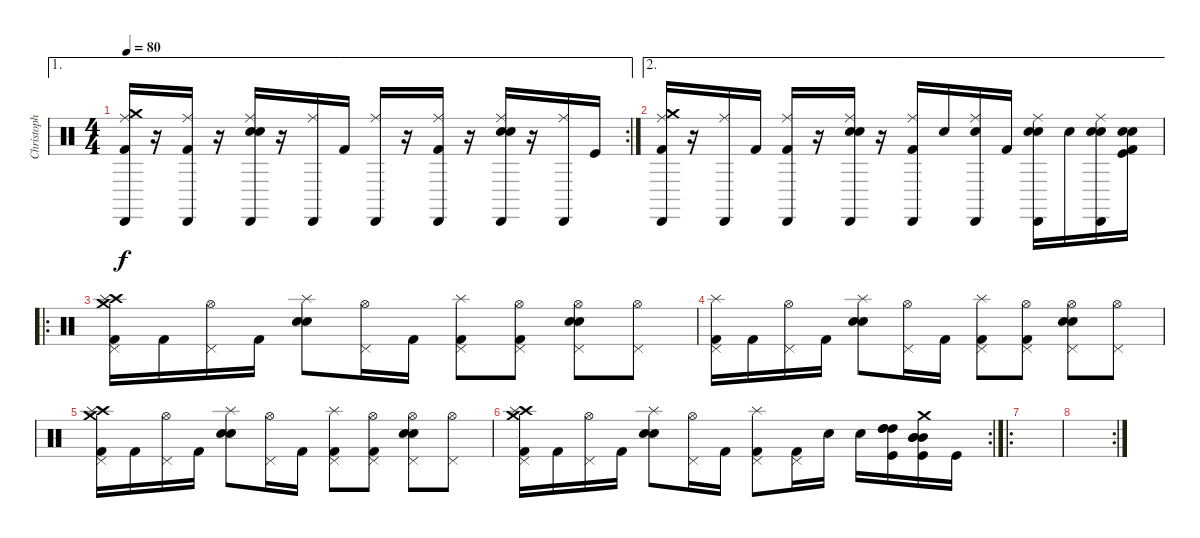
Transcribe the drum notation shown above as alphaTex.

\track ("Christoph" "Christoph") {instrument percussion}
\staff {score}
\articulation defaults
\ae 1
\rc 2
\ts (4 4)
\tempo 80
\clef neutral
\ks c
("Kick (hit) 2" "Crash medium (hit)" "Ride (middle)" "Cabasa (hit)").16{dy f} r.16 ("Kick (hit) 2" "Ride (middle)" "Cabasa (hit)").16 r.16 ("Snare (hit) 2" "Electric Snare (hit)" "Ride (middle)" "Cabasa (hit)").16 r.16 ("Ride (middle)" "Cabasa (hit)").16 "Kick (hit) 2".16 ("Ride (middle)" "Cabasa (hit)").16 r.16 ("Kick (hit) 2" "Ride (middle)" "Cabasa (hit)").16 r.16 ("Snare (hit) 2" "Electric Snare (hit)" "Ride (middle)" "Cabasa (hit)").16 r.16 ("Ride (middle)" "Cabasa (hit)").16 "Kick (hit)".16 |
\ae 2
("Kick (hit) 2" "Crash medium (hit)" "Ride (middle)" "Cabasa (hit)").16 r.16 ("Ride (middle)" "Cabasa (hit)").16 "Kick (hit) 2".16 ("Kick (hit) 2" "Ride (middle)" "Cabasa (hit)").16 r.16 ("Snare (hit) 2" "Electric Snare (hit)" "Ride (middle)" "Cabasa (hit)").16 r.16 ("Kick (hit) 2" "Ride (middle)" "Cabasa (hit)").16 "Electric Snare (hit)".16 ("Electric Snare (hit)" "Ride (middle)" "Cabasa (hit)").16 "Kick (hit) 2".16 ("Snare (hit) 2" "Electric Snare (hit)" "Ride (middle)" "Cabasa (hit)").16 "Electric Snare (hit)".16 ("Snare (hit) 2" "Electric Snare (hit)" "Ride (middle)" "Cabasa (hit)").16 ("Kick (hit) 2" "Kick (hit)" "Snare (hit) 2" "Electric Snare (hit)").16 |
\ro
("Kick (hit) 2" "Crash high (hit)" "Pedal Hi-Hat (hit)" "Splash (hit)" "Crash medium (hit)").16 "Kick (hit) 2".16 ("Pedal Hi-Hat (hit)" "Hi-Hat (open)").16 "Kick (hit) 2".16 ("Snare (hit) 2" "Electric Snare (hit)" "Splash (hit)").8 ("Pedal Hi-Hat (hit)" "Hi-Hat (open)").16 "Kick (hit) 2".16 ("Kick (hit) 2" "Pedal Hi-Hat (hit)" "Splash (hit)").8 ("Kick (hit) 2" "Pedal Hi-Hat (hit)" "Hi-Hat (open)").8 ("Snare (hit) 2" "Electric Snare (hit)" "Pedal Hi-Hat (hit)" "Hi-Hat (open)").8 ("Pedal Hi-Hat (hit)" "Hi-Hat (open)").8 |
("Kick (hit) 2" "Pedal Hi-Hat (hit)" "Splash (hit)").16 "Kick (hit) 2".16 ("Pedal Hi-Hat (hit)" "Hi-Hat (open)").16 "Kick (hit) 2".16 ("Snare (hit) 2" "Electric Snare (hit)" "Splash (hit)").8 ("Pedal Hi-Hat (hit)" "Hi-Hat (open)").16 "Kick (hit) 2".16 ("Kick (hit) 2" "Pedal Hi-Hat (hit)" "Splash (hit)").8 ("Kick (hit) 2" "Pedal Hi-Hat (hit)" "Hi-Hat (open)").8 ("Snare (hit) 2" "Electric Snare (hit)" "Pedal Hi-Hat (hit)" "Hi-Hat (open)").8 ("Pedal Hi-Hat (hit)" "Hi-Hat (open)").8 |
("Kick (hit) 2" "Crash high (hit)" "Pedal Hi-Hat (hit)" "Splash (hit)" "Crash medium (hit)").16 "Kick (hit) 2".16 ("Pedal Hi-Hat (hit)" "Hi-Hat (open)").16 "Kick (hit) 2".16 ("Snare (hit) 2" "Electric Snare (hit)" "Splash (hit)").8 ("Pedal Hi-Hat (hit)" "Hi-Hat (open)").16 "Kick (hit) 2".16 ("Kick (hit) 2" "Pedal Hi-Hat (hit)" "Splash (hit)").8 ("Kick (hit) 2" "Pedal Hi-Hat (hit)" "Hi-Hat (open)").8 ("Snare (hit) 2" "Electric Snare (hit)" "Pedal Hi-Hat (hit)" "Hi-Hat (open)").8 ("Pedal Hi-Hat (hit)" "Hi-Hat (open)").8 |
\rc 2
("Kick (hit) 2" "Crash high (hit)" "Pedal Hi-Hat (hit)" "Splash (hit)" "Crash medium (hit)").16 "Kick (hit) 2".16 ("Pedal Hi-Hat (hit)" "Hi-Hat (open)").16 "Kick (hit) 2".16 ("Snare (hit) 2" "Electric Snare (hit)" "Splash (hit)").8 ("Pedal Hi-Hat (hit)" "Hi-Hat (open)").16 "Kick (hit) 2".16 ("Kick (hit) 2" "Pedal Hi-Hat (hit)" "Splash (hit)").8 ("Kick (hit) 2" "Pedal Hi-Hat (hit)").16 "Electric Snare (hit)".16 "Electric Snare (hit)".16 ("Kick (hit)" "High Tom (hit)" "High Tom (hit)" "High Tom (hit)").16 ("Kick (hit)" "Mid Tom (hit)" "Mid Tom (hit)" "Mid Tom (hit)" "Crash medium (hit)").16 "Kick (hit)".16 |
\ro
|
\rc 2
